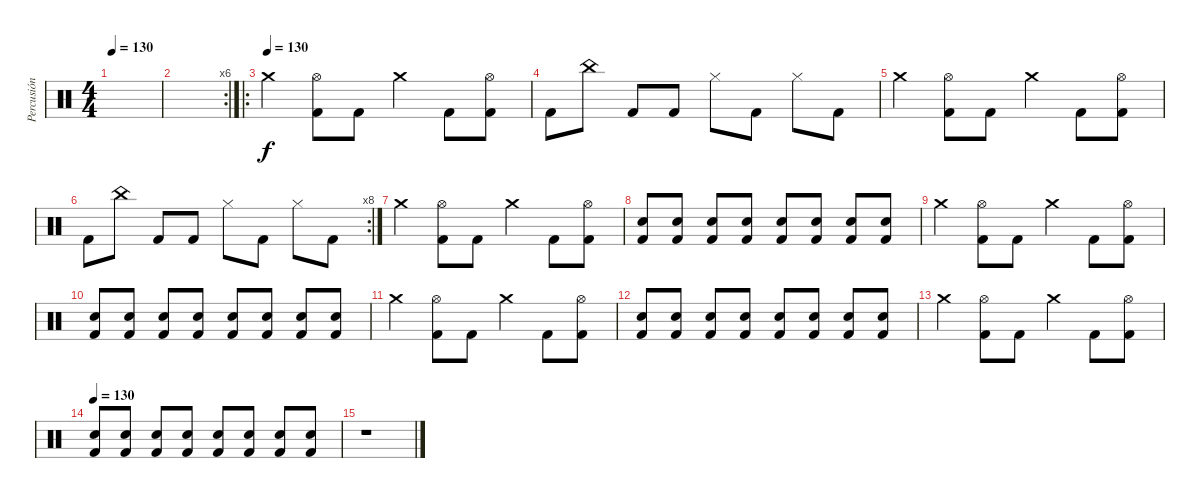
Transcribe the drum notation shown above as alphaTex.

\track ("Percusión" "Percusión") {instrument percussion}
\staff {score}
\articulation defaults
\ts (4 4)
\tempo 130
\clef neutral
\ks c
|
\rc 6
|
\ro
\tempo (130)
"Crash medium (hit)".4 ("Hi-Hat (open)" "Kick (hit) 2").8 "Kick (hit) 2".8 "Crash medium (hit)".4 "Kick (hit) 2".8 ("Hi-Hat (open)" "Kick (hit) 2").8 |
"Kick (hit) 2".8 "China (hit)".8 "Kick (hit) 2".8 "Kick (hit) 2".8 "Hi-Hat (closed)".8 "Kick (hit) 2".8 "Hi-Hat (closed)".8 "Kick (hit) 2".8 |
"Crash medium (hit)".4 ("Hi-Hat (open)" "Kick (hit) 2").8 "Kick (hit) 2".8 "Crash medium (hit)".4 "Kick (hit) 2".8 ("Hi-Hat (open)" "Kick (hit) 2").8 |
\rc 8 "Kick (hit) 2".8 "China (hit)".8 "Kick (hit) 2".8 "Kick (hit) 2".8 "Hi-Hat (closed)".8 "Kick (hit) 2".8 "Hi-Hat (closed)".8 "Kick (hit) 2".8
|
"Crash medium (hit)".4 ("Hi-Hat (open)" "Kick (hit) 2").8 "Kick (hit) 2".8 "Crash medium (hit)".4 "Kick (hit) 2".8 ("Hi-Hat (open)" "Kick (hit) 2").8 |
("Snare (hit) 2" "Kick (hit) 2").8 ("Snare (hit) 2" "Kick (hit) 2").8 ("Snare (hit) 2" "Kick (hit) 2").8 ("Snare (hit) 2" "Kick (hit) 2").8 ("Snare (hit) 2" "Kick (hit) 2").8 ("Snare (hit) 2" "Kick (hit) 2").8 ("Snare (hit) 2" "Kick (hit) 2").8 ("Snare (hit) 2" "Kick (hit) 2").8 |
"Crash medium (hit)".4 ("Hi-Hat (open)" "Kick (hit) 2").8 "Kick (hit) 2".8 "Crash medium (hit)".4 "Kick (hit) 2".8 ("Hi-Hat (open)" "Kick (hit) 2").8 |
("Snare (hit) 2" "Kick (hit) 2").8 ("Snare (hit) 2" "Kick (hit) 2").8 ("Snare (hit) 2" "Kick (hit) 2").8 ("Snare (hit) 2" "Kick (hit) 2").8 ("Snare (hit) 2" "Kick (hit) 2").8 ("Snare (hit) 2" "Kick (hit) 2").8 ("Snare (hit) 2" "Kick (hit) 2").8 ("Snare (hit) 2" "Kick (hit) 2").8 |
"Crash medium (hit)".4 ("Hi-Hat (open)" "Kick (hit) 2").8 "Kick (hit) 2".8 "Crash medium (hit)".4 "Kick (hit) 2".8 ("Hi-Hat (open)" "Kick (hit) 2").8 |
("Snare (hit) 2" "Kick (hit) 2").8 ("Snare (hit) 2" "Kick (hit) 2").8 ("Snare (hit) 2" "Kick (hit) 2").8 ("Snare (hit) 2" "Kick (hit) 2").8 ("Snare (hit) 2" "Kick (hit) 2").8 ("Snare (hit) 2" "Kick (hit) 2").8 ("Snare (hit) 2" "Kick (hit) 2").8 ("Snare (hit) 2" "Kick (hit) 2").8 |
"Crash medium (hit)".4 ("Hi-Hat (open)" "Kick (hit) 2").8 "Kick (hit) 2".8 "Crash medium (hit)".4 "Kick (hit) 2".8 ("Hi-Hat (open)" "Kick (hit) 2").8 |
\tempo 130
("Snare (hit) 2" "Kick (hit) 2").8 ("Snare (hit) 2" "Kick (hit) 2").8 ("Snare (hit) 2" "Kick (hit) 2").8 ("Snare (hit) 2" "Kick (hit) 2").8 ("Snare (hit) 2" "Kick (hit) 2").8 ("Snare (hit) 2" "Kick (hit) 2").8 ("Snare (hit) 2" "Kick (hit) 2").8 ("Snare (hit) 2" "Kick (hit) 2").8 |
r.1
